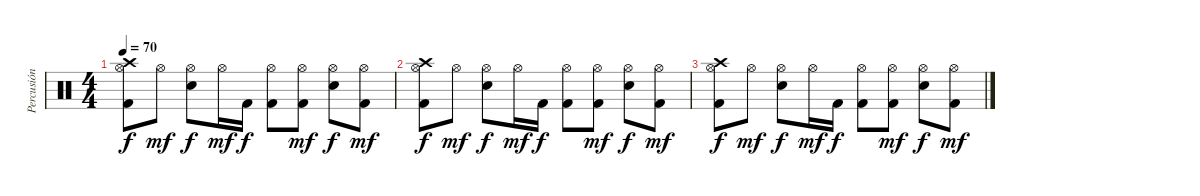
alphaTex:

\track ("Percusión" "Percusión") {instrument percussion}
\staff {score}
\articulation defaults
\ts (4 4)
\tempo 70
\clef neutral
\ks c
("Hi-Hat (open)" "Crash high (hit)" "Kick (hit) 2").8{dy f} "Hi-Hat (open)".8{dy mf} ("Hi-Hat (open)" "Snare (hit) 2").8{dy f} "Hi-Hat (open)".16{dy mf} "Kick (hit) 2".16{dy f} ("Hi-Hat (open)" "Kick (hit) 2").8 ("Hi-Hat (open)" "Kick (hit) 2").8{dy mf} ("Hi-Hat (open)" "Snare (hit) 2").8{dy f} ("Hi-Hat (open)" "Kick (hit) 2").8{dy mf} |
("Hi-Hat (open)" "Crash high (hit)" "Kick (hit) 2").8{dy f} "Hi-Hat (open)".8{dy mf} ("Hi-Hat (open)" "Snare (hit) 2").8{dy f} "Hi-Hat (open)".16{dy mf} "Kick (hit) 2".16{dy f} ("Hi-Hat (open)" "Kick (hit) 2").8 ("Hi-Hat (open)" "Kick (hit) 2").8{dy mf} ("Hi-Hat (open)" "Snare (hit) 2").8{dy f} ("Hi-Hat (open)" "Kick (hit) 2").8{dy mf} |
("Hi-Hat (open)" "Crash high (hit)" "Kick (hit) 2").8{dy f} "Hi-Hat (open)".8{dy mf} ("Hi-Hat (open)" "Snare (hit) 2").8{dy f} "Hi-Hat (open)".16{dy mf} "Kick (hit) 2".16{dy f} ("Hi-Hat (open)" "Kick (hit) 2").8 ("Hi-Hat (open)" "Kick (hit) 2").8{dy mf} ("Hi-Hat (open)" "Snare (hit) 2").8{dy f} ("Hi-Hat (open)" "Kick (hit) 2").8{dy mf}
